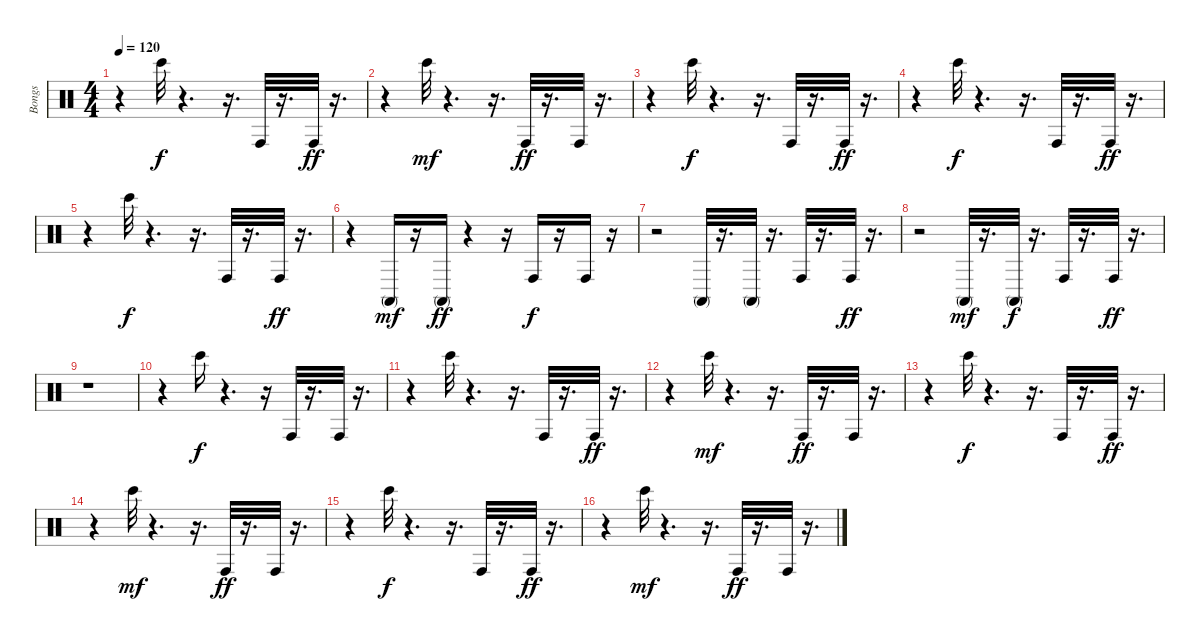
\track ("Bongs" "Bongs") {instrument percussion}
\staff {score}
\articulation defaults
\ts (4 4)
\tempo 120
\clef neutral
\ks c
r.4{dy ff} "Bongo High (hit)".32{dy f} r.4{d} r.16{d} "Conga high (hit)".32 r.16{d} "Conga high (hit)".32{dy ff} r.16{d} |
r.4 "Bongo High (hit)".32{dy mf} r.4{d} r.16{d} "Conga high (hit)".32{dy ff} r.16{d} "Conga high (hit)".32 r.16{d} |
r.4 "Bongo High (hit)".32{dy f} r.4{d} r.16{d} "Conga high (hit)".32 r.16{d} "Conga high (hit)".32{dy ff} r.16{d} |
r.4 "Bongo High (hit)".32{dy f} r.4{d} r.16{d} "Conga high (hit)".32 r.16{d} "Conga high (hit)".32{dy ff} r.16{d} |
r.4 "Bongo High (hit)".32{dy f} r.4{d} r.16{d} "Conga high (hit)".32 r.16{d} "Conga high (hit)".32{dy ff} r.16{d} |
r.4 "Conga high (mute)".16{dy mf} r.16 "Conga high (mute)".16{dy ff} r.4 r.16 "Conga high (hit)".16{dy f} r.16 "Conga high (hit)".16 r.16 |
r.2 "Conga high (mute)".32 r.16{d} "Conga high (mute)".32 r.16{d} "Conga high (hit)".32 r.16{d} "Conga high (hit)".32{dy ff} r.16{d} |
r.2 "Conga high (mute)".32{dy mf} r.16{d} "Conga high (mute)".32{dy f} r.16{d} "Conga high (hit)".32 r.16{d} "Conga high (hit)".32{dy ff} r.16{d} |
r.1 |
r.4 "Bongo High (hit)".16{dy f} r.4{d} r.16 "Conga high (hit)".32 r.16{d} "Conga high (hit)".32 r.16{d} |
r.4 "Bongo High (hit)".32 r.4{d} r.16{d} "Conga high (hit)".32 r.16{d} "Conga high (hit)".32{dy ff} r.16{d} |
r.4 "Bongo High (hit)".32{dy mf} r.4{d} r.16{d} "Conga high (hit)".32{dy ff} r.16{d} "Conga high (hit)".32 r.16{d} |
r.4 "Bongo High (hit)".32{dy f} r.4{d} r.16{d} "Conga high (hit)".32 r.16{d} "Conga high (hit)".32{dy ff} r.16{d} |
r.4 "Bongo High (hit)".32{dy mf} r.4{d} r.16{d} "Conga high (hit)".32{dy ff} r.16{d} "Conga high (hit)".32 r.16{d} |
r.4 "Bongo High (hit)".32{dy f} r.4{d} r.16{d} "Conga high (hit)".32 r.16{d} "Conga high (hit)".32{dy ff} r.16{d} |
r.4 "Bongo High (hit)".32{dy mf} r.4{d} r.16{d} "Conga high (hit)".32{dy ff} r.16{d} "Conga high (hit)".32 r.16{d}
